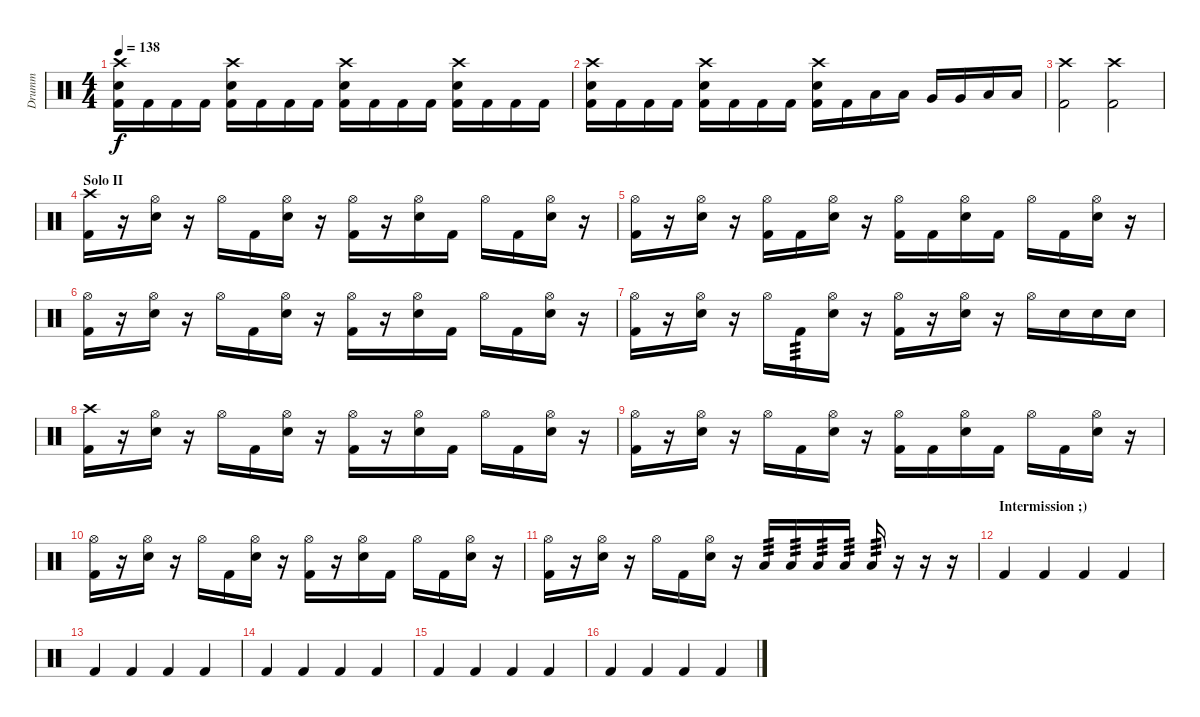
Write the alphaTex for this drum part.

\track ("Drumm" "Drumm") {instrument percussion}
\staff {score}
\articulation defaults
\ts (4 4)
\tempo 138
\clef neutral
\ks c
("Crash high (hit)" "Snare (hit) 2" "Kick (hit) 2").16{dy f} "Kick (hit) 2".16 "Kick (hit) 2".16 "Kick (hit) 2".16 ("Crash high (hit)" "Snare (hit) 2" "Kick (hit) 2").16 "Kick (hit) 2".16 "Kick (hit) 2".16 "Kick (hit) 2".16 ("Crash high (hit)" "Snare (hit) 2" "Kick (hit) 2").16 "Kick (hit) 2".16 "Kick (hit) 2".16 "Kick (hit) 2".16 ("Crash high (hit)" "Snare (hit) 2" "Kick (hit) 2").16 "Kick (hit) 2".16 "Kick (hit) 2".16 "Kick (hit) 2".16 |
("Crash high (hit)" "Snare (hit) 2" "Kick (hit) 2").16 "Kick (hit) 2".16 "Kick (hit) 2".16 "Kick (hit) 2".16 ("Crash high (hit)" "Snare (hit) 2" "Kick (hit) 2").16 "Kick (hit) 2".16 "Kick (hit) 2".16 "Kick (hit) 2".16 ("Crash high (hit)" "Snare (hit) 2" "Kick (hit) 2").16 "Kick (hit) 2".16 "Low Tom (hit)".16 "Low Tom (hit)".16 "Very Low Tom (hit)".16 "Very Low Tom (hit)".16 "Low Floor Tom (hit)".16 "Low Floor Tom (hit)".16 |
("Crash high (hit)" "Kick (hit) 2").2 ("Crash high (hit)" "Kick (hit) 2").2 |
\section ("" "Solo II")
("Crash high (hit)" "Kick (hit) 2").16 r.16 ("Hi-Hat (open)" "Snare (hit) 2").16 r.16 "Hi-Hat (open)".16 "Kick (hit) 2".16 ("Hi-Hat (open)" "Snare (hit) 2").16 r.16 ("Hi-Hat (open)" "Kick (hit) 2").16 r.16 ("Hi-Hat (open)" "Snare (hit) 2").16 "Kick (hit) 2".16 "Hi-Hat (open)".16 "Kick (hit) 2".16 ("Hi-Hat (open)" "Snare (hit) 2").16 r.16 |
("Hi-Hat (open)" "Kick (hit) 2").16 r.16 ("Hi-Hat (open)" "Snare (hit) 2").16 r.16 ("Hi-Hat (open)" "Kick (hit) 2").16 "Kick (hit) 2".16 ("Hi-Hat (open)" "Snare (hit) 2").16 r.16 ("Hi-Hat (open)" "Kick (hit) 2").16 "Kick (hit) 2".16 ("Hi-Hat (open)" "Snare (hit) 2").16 "Kick (hit) 2".16 "Hi-Hat (open)".16 "Kick (hit) 2".16 ("Hi-Hat (open)" "Snare (hit) 2").16 r.16 |
("Hi-Hat (open)" "Kick (hit) 2").16 r.16 ("Hi-Hat (open)" "Snare (hit) 2").16 r.16 "Hi-Hat (open)".16 "Kick (hit) 2".16 ("Hi-Hat (open)" "Snare (hit) 2").16 r.16 ("Hi-Hat (open)" "Kick (hit) 2").16 r.16 ("Hi-Hat (open)" "Snare (hit) 2").16 "Kick (hit) 2".16 "Hi-Hat (open)".16 "Kick (hit) 2".16 ("Hi-Hat (open)" "Snare (hit) 2").16 r.16 |
("Hi-Hat (open)" "Kick (hit) 2").16 r.16 ("Hi-Hat (open)" "Snare (hit) 2").16 r.16 "Hi-Hat (open)".16 "Kick (hit) 2".16{tp 3} ("Hi-Hat (open)" "Snare (hit) 2").16 r.16 ("Hi-Hat (open)" "Kick (hit) 2").16 r.16 ("Hi-Hat (open)" "Snare (hit) 2").16 r.16 "Hi-Hat (open)".16 "Snare (hit) 2".16 "Snare (hit) 2".16 "Snare (hit) 2".16 |
("Crash high (hit)" "Kick (hit) 2").16 r.16 ("Hi-Hat (open)" "Snare (hit) 2").16 r.16 "Hi-Hat (open)".16 "Kick (hit) 2".16 ("Hi-Hat (open)" "Snare (hit) 2").16 r.16 ("Hi-Hat (open)" "Kick (hit) 2").16 r.16 ("Hi-Hat (open)" "Snare (hit) 2").16 "Kick (hit) 2".16 "Hi-Hat (open)".16 "Kick (hit) 2".16 ("Hi-Hat (open)" "Snare (hit) 2").16 r.16 |
("Hi-Hat (open)" "Kick (hit) 2").16 r.16 ("Hi-Hat (open)" "Snare (hit) 2").16 r.16 "Hi-Hat (open)".16 "Kick (hit) 2".16 ("Hi-Hat (open)" "Snare (hit) 2").16 r.16 ("Hi-Hat (open)" "Kick (hit) 2").16 "Kick (hit) 2".16 ("Hi-Hat (open)" "Snare (hit) 2").16 "Kick (hit) 2".16 "Hi-Hat (open)".16 "Kick (hit) 2".16 ("Hi-Hat (open)" "Snare (hit) 2").16 r.16 |
("Hi-Hat (open)" "Kick (hit) 2").16 r.16 ("Hi-Hat (open)" "Snare (hit) 2").16 r.16 "Hi-Hat (open)".16 "Kick (hit) 2".16 ("Hi-Hat (open)" "Snare (hit) 2").16 r.16 ("Hi-Hat (open)" "Kick (hit) 2").16 r.16 ("Hi-Hat (open)" "Snare (hit) 2").16 "Kick (hit) 2".16 "Hi-Hat (open)".16 "Kick (hit) 2".16 ("Hi-Hat (open)" "Snare (hit) 2").16 r.16 |
("Hi-Hat (open)" "Kick (hit) 2").16 r.16 ("Hi-Hat (open)" "Snare (hit) 2").16 r.16 "Hi-Hat (open)".16 "Kick (hit) 2".16 ("Hi-Hat (open)" "Snare (hit) 2").16 r.16 "Low Floor Tom (hit)".16{tp 3} "Low Floor Tom (hit)".16{tp 3} "Low Floor Tom (hit)".16{tp 3} "Low Floor Tom (hit)".16{tp 3} "Low Floor Tom (hit)".16{tp 3} r.16 r.16 r.16 |
\section ("" "Intermission ;)")
"Kick (hit) 2".4 "Kick (hit) 2".4 "Kick (hit) 2".4 "Kick (hit) 2".4 |
"Kick (hit) 2".4 "Kick (hit) 2".4 "Kick (hit) 2".4 "Kick (hit) 2".4 |
"Kick (hit) 2".4 "Kick (hit) 2".4 "Kick (hit) 2".4 "Kick (hit) 2".4 |
"Kick (hit) 2".4 "Kick (hit) 2".4 "Kick (hit) 2".4 "Kick (hit) 2".4 |
"Kick (hit) 2".4 "Kick (hit) 2".4 "Kick (hit) 2".4 "Kick (hit) 2".4
